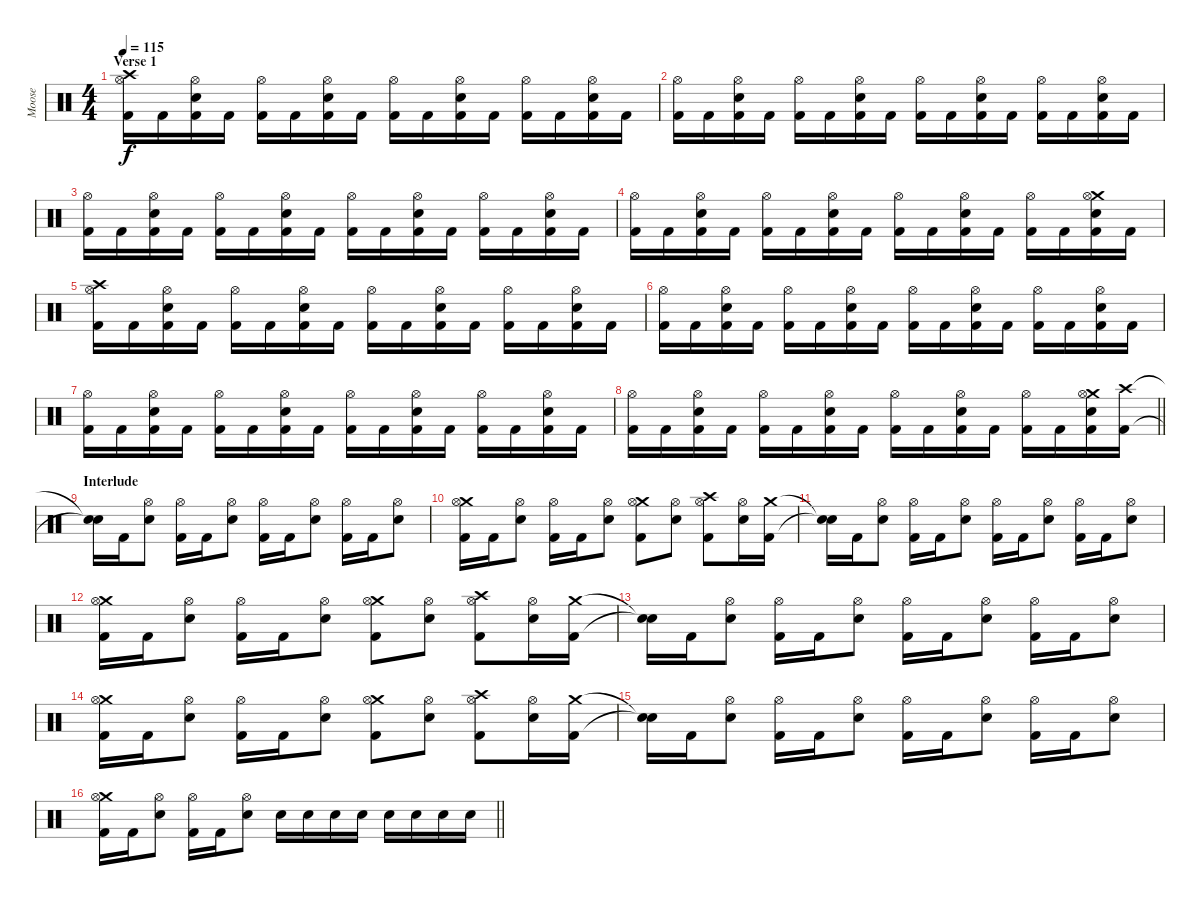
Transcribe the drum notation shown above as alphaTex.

\track ("Moose" "Moose") {instrument percussion}
\staff {score}
\articulation defaults
\ts (4 4)
\section ("" "Verse 1")
\tempo 115
\clef neutral
\ks c
("Crash high (hit)" "Hi-Hat (open)" "Kick (hit) 2").16{dy f} "Kick (hit) 2".16 ("Hi-Hat (open)" "Electric Snare (hit)" "Kick (hit) 2").16 "Kick (hit) 2".16 ("Hi-Hat (open)" "Kick (hit) 2").16 "Kick (hit) 2".16 ("Hi-Hat (open)" "Electric Snare (hit)" "Kick (hit) 2").16 "Kick (hit) 2".16 ("Hi-Hat (open)" "Kick (hit) 2").16 "Kick (hit) 2".16 ("Hi-Hat (open)" "Electric Snare (hit)" "Kick (hit) 2").16 "Kick (hit) 2".16 ("Hi-Hat (open)" "Kick (hit) 2").16 "Kick (hit) 2".16 ("Hi-Hat (open)" "Electric Snare (hit)" "Kick (hit) 2").16 "Kick (hit) 2".16 |
("Hi-Hat (open)" "Kick (hit) 2").16 "Kick (hit) 2".16 ("Hi-Hat (open)" "Electric Snare (hit)" "Kick (hit) 2").16 "Kick (hit) 2".16 ("Hi-Hat (open)" "Kick (hit) 2").16 "Kick (hit) 2".16 ("Hi-Hat (open)" "Electric Snare (hit)" "Kick (hit) 2").16 "Kick (hit) 2".16 ("Hi-Hat (open)" "Kick (hit) 2").16 "Kick (hit) 2".16 ("Hi-Hat (open)" "Electric Snare (hit)" "Kick (hit) 2").16 "Kick (hit) 2".16 ("Hi-Hat (open)" "Kick (hit) 2").16 "Kick (hit) 2".16 ("Hi-Hat (open)" "Electric Snare (hit)" "Kick (hit) 2").16 "Kick (hit) 2".16 |
("Hi-Hat (open)" "Kick (hit) 2").16 "Kick (hit) 2".16 ("Hi-Hat (open)" "Electric Snare (hit)" "Kick (hit) 2").16 "Kick (hit) 2".16 ("Hi-Hat (open)" "Kick (hit) 2").16 "Kick (hit) 2".16 ("Hi-Hat (open)" "Electric Snare (hit)" "Kick (hit) 2").16 "Kick (hit) 2".16 ("Hi-Hat (open)" "Kick (hit) 2").16 "Kick (hit) 2".16 ("Hi-Hat (open)" "Electric Snare (hit)" "Kick (hit) 2").16 "Kick (hit) 2".16 ("Hi-Hat (open)" "Kick (hit) 2").16 "Kick (hit) 2".16 ("Hi-Hat (open)" "Electric Snare (hit)" "Kick (hit) 2").16 "Kick (hit) 2".16 |
("Hi-Hat (open)" "Kick (hit) 2").16 "Kick (hit) 2".16 ("Hi-Hat (open)" "Electric Snare (hit)" "Kick (hit) 2").16 "Kick (hit) 2".16 ("Hi-Hat (open)" "Kick (hit) 2").16 "Kick (hit) 2".16 ("Hi-Hat (open)" "Electric Snare (hit)" "Kick (hit) 2").16 "Kick (hit) 2".16 ("Hi-Hat (open)" "Kick (hit) 2").16 "Kick (hit) 2".16 ("Hi-Hat (open)" "Electric Snare (hit)" "Kick (hit) 2").16 "Kick (hit) 2".16 ("Hi-Hat (open)" "Kick (hit) 2").16 "Kick (hit) 2".16 ("Crash medium (hit)" "Hi-Hat (open)" "Electric Snare (hit)" "Kick (hit) 2").16 "Kick (hit) 2".16 |
("Crash high (hit)" "Hi-Hat (open)" "Kick (hit) 2").16 "Kick (hit) 2".16 ("Hi-Hat (open)" "Electric Snare (hit)" "Kick (hit) 2").16 "Kick (hit) 2".16 ("Hi-Hat (open)" "Kick (hit) 2").16 "Kick (hit) 2".16 ("Hi-Hat (open)" "Electric Snare (hit)" "Kick (hit) 2").16 "Kick (hit) 2".16 ("Hi-Hat (open)" "Kick (hit) 2").16 "Kick (hit) 2".16 ("Hi-Hat (open)" "Electric Snare (hit)" "Kick (hit) 2").16 "Kick (hit) 2".16 ("Hi-Hat (open)" "Kick (hit) 2").16 "Kick (hit) 2".16 ("Hi-Hat (open)" "Electric Snare (hit)" "Kick (hit) 2").16 "Kick (hit) 2".16 |
("Hi-Hat (open)" "Kick (hit) 2").16 "Kick (hit) 2".16 ("Hi-Hat (open)" "Electric Snare (hit)" "Kick (hit) 2").16 "Kick (hit) 2".16 ("Hi-Hat (open)" "Kick (hit) 2").16 "Kick (hit) 2".16 ("Hi-Hat (open)" "Electric Snare (hit)" "Kick (hit) 2").16 "Kick (hit) 2".16 ("Hi-Hat (open)" "Kick (hit) 2").16 "Kick (hit) 2".16 ("Hi-Hat (open)" "Electric Snare (hit)" "Kick (hit) 2").16 "Kick (hit) 2".16 ("Hi-Hat (open)" "Kick (hit) 2").16 "Kick (hit) 2".16 ("Hi-Hat (open)" "Electric Snare (hit)" "Kick (hit) 2").16 "Kick (hit) 2".16 |
("Hi-Hat (open)" "Kick (hit) 2").16 "Kick (hit) 2".16 ("Hi-Hat (open)" "Electric Snare (hit)" "Kick (hit) 2").16 "Kick (hit) 2".16 ("Hi-Hat (open)" "Kick (hit) 2").16 "Kick (hit) 2".16 ("Hi-Hat (open)" "Electric Snare (hit)" "Kick (hit) 2").16 "Kick (hit) 2".16 ("Hi-Hat (open)" "Kick (hit) 2").16 "Kick (hit) 2".16 ("Hi-Hat (open)" "Electric Snare (hit)" "Kick (hit) 2").16 "Kick (hit) 2".16 ("Hi-Hat (open)" "Kick (hit) 2").16 "Kick (hit) 2".16 ("Hi-Hat (open)" "Electric Snare (hit)" "Kick (hit) 2").16 "Kick (hit) 2".16 |
\barLineRight lightlight
("Hi-Hat (open)" "Kick (hit) 2").16 "Kick (hit) 2".16 ("Hi-Hat (open)" "Electric Snare (hit)" "Kick (hit) 2").16 "Kick (hit) 2".16 ("Hi-Hat (open)" "Kick (hit) 2").16 "Kick (hit) 2".16 ("Hi-Hat (open)" "Electric Snare (hit)" "Kick (hit) 2").16 "Kick (hit) 2".16 ("Hi-Hat (open)" "Kick (hit) 2").16 "Kick (hit) 2".16 ("Hi-Hat (open)" "Electric Snare (hit)" "Kick (hit) 2").16 "Kick (hit) 2".16 ("Hi-Hat (open)" "Kick (hit) 2").16 "Kick (hit) 2".16 ("Crash medium (hit)" "Hi-Hat (open)" "Electric Snare (hit)" "Kick (hit) 2").16 ("Crash high (hit)" "Kick (hit) 2").16 |
\section ("" "Interlude")
("Snare (hit)"{t} "Snare (hit)"{t}).16 "Kick (hit) 2".16 ("Hi-Hat (open)" "Electric Snare (hit)").8 ("Hi-Hat (open)" "Kick (hit) 2").16 "Kick (hit) 2".16 ("Hi-Hat (open)" "Electric Snare (hit)").8 ("Hi-Hat (open)" "Kick (hit) 2").16 "Kick (hit) 2".16 ("Hi-Hat (open)" "Electric Snare (hit)").8 ("Hi-Hat (open)" "Kick (hit) 2").16 "Kick (hit) 2".16 ("Hi-Hat (open)" "Electric Snare (hit)").8 |
("Crash medium (hit)" "Hi-Hat (open)" "Kick (hit) 2").16 "Kick (hit) 2".16 ("Hi-Hat (open)" "Electric Snare (hit)").8 ("Hi-Hat (open)" "Kick (hit) 2").16 "Kick (hit) 2".16 ("Hi-Hat (open)" "Electric Snare (hit)").8 ("Crash medium (hit)" "Hi-Hat (open)" "Kick (hit) 2").8 ("Hi-Hat (open)" "Electric Snare (hit)").8 ("Crash high (hit)" "Hi-Hat (open)" "Kick (hit) 2").8 ("Hi-Hat (open)" "Electric Snare (hit)").16 ("Crash medium (hit)" "Kick (hit) 2").16 |
("Snare (hit)"{t} "Snare (hit)"{t}).16 "Kick (hit) 2".16 ("Hi-Hat (open)" "Electric Snare (hit)").8 ("Hi-Hat (open)" "Kick (hit) 2").16 "Kick (hit) 2".16 ("Hi-Hat (open)" "Electric Snare (hit)").8 ("Hi-Hat (open)" "Kick (hit) 2").16 "Kick (hit) 2".16 ("Hi-Hat (open)" "Electric Snare (hit)").8 ("Hi-Hat (open)" "Kick (hit) 2").16 "Kick (hit) 2".16 ("Hi-Hat (open)" "Electric Snare (hit)").8 |
("Crash medium (hit)" "Hi-Hat (open)" "Kick (hit) 2").16 "Kick (hit) 2".16 ("Hi-Hat (open)" "Electric Snare (hit)").8 ("Hi-Hat (open)" "Kick (hit) 2").16 "Kick (hit) 2".16 ("Hi-Hat (open)" "Electric Snare (hit)").8 ("Crash medium (hit)" "Hi-Hat (open)" "Kick (hit) 2").8 ("Hi-Hat (open)" "Electric Snare (hit)").8 ("Crash high (hit)" "Hi-Hat (open)" "Kick (hit) 2").8 ("Hi-Hat (open)" "Electric Snare (hit)").16 ("Crash medium (hit)" "Kick (hit) 2").16 |
("Snare (hit)"{t} "Snare (hit)"{t}).16 "Kick (hit) 2".16 ("Hi-Hat (open)" "Electric Snare (hit)").8 ("Hi-Hat (open)" "Kick (hit) 2").16 "Kick (hit) 2".16 ("Hi-Hat (open)" "Electric Snare (hit)").8 ("Hi-Hat (open)" "Kick (hit) 2").16 "Kick (hit) 2".16 ("Hi-Hat (open)" "Electric Snare (hit)").8 ("Hi-Hat (open)" "Kick (hit) 2").16 "Kick (hit) 2".16 ("Hi-Hat (open)" "Electric Snare (hit)").8 |
("Crash medium (hit)" "Hi-Hat (open)" "Kick (hit) 2").16 "Kick (hit) 2".16 ("Hi-Hat (open)" "Electric Snare (hit)").8 ("Hi-Hat (open)" "Kick (hit) 2").16 "Kick (hit) 2".16 ("Hi-Hat (open)" "Electric Snare (hit)").8 ("Crash medium (hit)" "Hi-Hat (open)" "Kick (hit) 2").8 ("Hi-Hat (open)" "Electric Snare (hit)").8 ("Crash high (hit)" "Hi-Hat (open)" "Kick (hit) 2").8 ("Hi-Hat (open)" "Electric Snare (hit)").16 ("Crash medium (hit)" "Kick (hit) 2").16 |
("Snare (hit)"{t} "Snare (hit)"{t}).16 "Kick (hit) 2".16 ("Hi-Hat (open)" "Electric Snare (hit)").8 ("Hi-Hat (open)" "Kick (hit) 2").16 "Kick (hit) 2".16 ("Hi-Hat (open)" "Electric Snare (hit)").8 ("Hi-Hat (open)" "Kick (hit) 2").16 "Kick (hit) 2".16 ("Hi-Hat (open)" "Electric Snare (hit)").8 ("Hi-Hat (open)" "Kick (hit) 2").16 "Kick (hit) 2".16 ("Hi-Hat (open)" "Electric Snare (hit)").8 |
\barLineRight lightlight
("Crash medium (hit)" "Hi-Hat (open)" "Kick (hit) 2").16 "Kick (hit) 2".16 ("Hi-Hat (open)" "Electric Snare (hit)").8 ("Hi-Hat (open)" "Kick (hit) 2").16 "Kick (hit) 2".16 ("Hi-Hat (open)" "Electric Snare (hit)").8 "Electric Snare (hit)".16 "Electric Snare (hit)".16 "Electric Snare (hit)".16 "Electric Snare (hit)".16 "Electric Snare (hit)".16 "Electric Snare (hit)".16 "Electric Snare (hit)".16 "Electric Snare (hit)".16
